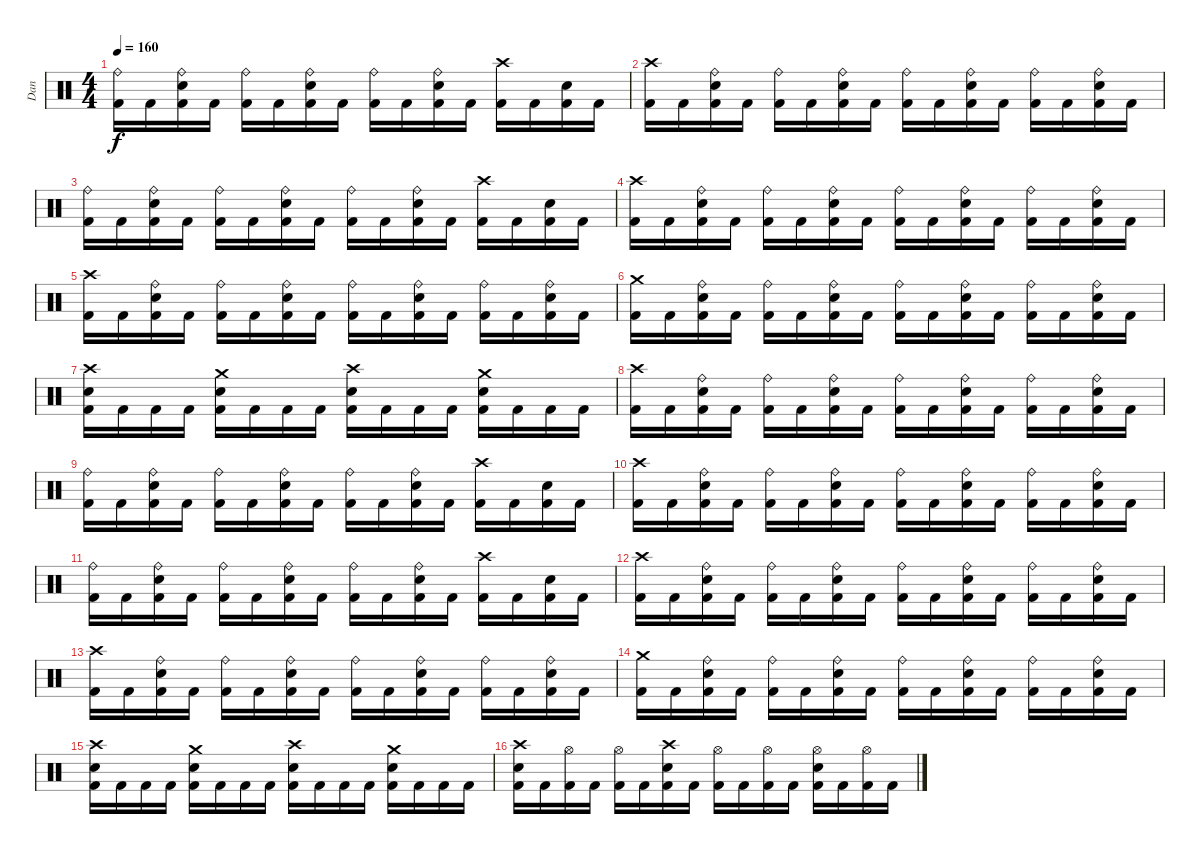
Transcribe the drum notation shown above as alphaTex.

\track ("Dan " "Dan ") {instrument percussion}
\staff {score}
\articulation defaults
\ts (4 4)
\tempo 160
\clef neutral
\ks c
("Kick (hit) 2" "Ride (bell)").16{dy f} "Kick (hit) 2".16 ("Metronome (bell)" "Kick (hit) 2" "Ride (bell)").16 "Kick (hit) 2".16 ("Kick (hit) 2" "Ride (bell)").16 "Kick (hit) 2".16 ("Metronome (bell)" "Kick (hit) 2" "Ride (bell)").16 "Kick (hit) 2".16 ("Kick (hit) 2" "Ride (bell)").16 "Kick (hit) 2".16 ("Metronome (bell)" "Kick (hit) 2" "Ride (bell)").16 "Kick (hit) 2".16 ("Kick (hit) 2" "Crash high (hit)").16 "Kick (hit) 2".16 ("Metronome (bell)" "Kick (hit) 2").16 "Kick (hit) 2".16 |
("Kick (hit) 2" "Crash high (hit)").16 "Kick (hit) 2".16 ("Metronome (bell)" "Kick (hit) 2" "Ride (bell)").16 "Kick (hit) 2".16 ("Kick (hit) 2" "Ride (bell)").16 "Kick (hit) 2".16 ("Metronome (bell)" "Kick (hit) 2" "Ride (bell)").16 "Kick (hit) 2".16 ("Kick (hit) 2" "Ride (bell)").16 "Kick (hit) 2".16 ("Metronome (bell)" "Kick (hit) 2" "Ride (bell)").16 "Kick (hit) 2".16 ("Kick (hit) 2" "Ride (bell)").16 "Kick (hit) 2".16 ("Metronome (bell)" "Kick (hit) 2" "Ride (bell)").16 "Kick (hit) 2".16 |
("Kick (hit) 2" "Ride (bell)").16 "Kick (hit) 2".16 ("Metronome (bell)" "Kick (hit) 2" "Ride (bell)").16 "Kick (hit) 2".16 ("Kick (hit) 2" "Ride (bell)").16 "Kick (hit) 2".16 ("Metronome (bell)" "Kick (hit) 2" "Ride (bell)").16 "Kick (hit) 2".16 ("Kick (hit) 2" "Ride (bell)").16 "Kick (hit) 2".16 ("Metronome (bell)" "Kick (hit) 2" "Ride (bell)").16 "Kick (hit) 2".16 ("Kick (hit) 2" "Crash high (hit)").16 "Kick (hit) 2".16 ("Metronome (bell)" "Kick (hit) 2").16 "Kick (hit) 2".16 |
("Kick (hit) 2" "Crash high (hit)").16 "Kick (hit) 2".16 ("Metronome (bell)" "Kick (hit) 2" "Ride (bell)").16 "Kick (hit) 2".16 ("Kick (hit) 2" "Ride (bell)").16 "Kick (hit) 2".16 ("Metronome (bell)" "Kick (hit) 2" "Ride (bell)").16 "Kick (hit) 2".16 ("Kick (hit) 2" "Ride (bell)").16 "Kick (hit) 2".16 ("Metronome (bell)" "Kick (hit) 2" "Ride (bell)").16 "Kick (hit) 2".16 ("Kick (hit) 2" "Ride (bell)").16 "Kick (hit) 2".16 ("Metronome (bell)" "Kick (hit) 2" "Ride (bell)").16 "Kick (hit) 2".16 |
("Kick (hit) 2" "Crash high (hit)").16 "Kick (hit) 2".16 ("Metronome (bell)" "Kick (hit) 2" "Ride (bell)").16 "Kick (hit) 2".16 ("Kick (hit) 2" "Ride (bell)").16 "Kick (hit) 2".16 ("Metronome (bell)" "Kick (hit) 2" "Ride (bell)").16 "Kick (hit) 2".16 ("Kick (hit) 2" "Ride (bell)").16 "Kick (hit) 2".16 ("Metronome (bell)" "Kick (hit) 2" "Ride (bell)").16 "Kick (hit) 2".16 ("Kick (hit) 2" "Ride (bell)").16 "Kick (hit) 2".16 ("Metronome (bell)" "Kick (hit) 2" "Ride (bell)").16 "Kick (hit) 2".16 |
("Kick (hit) 2" "Crash medium (hit)").16 "Kick (hit) 2".16 ("Metronome (bell)" "Kick (hit) 2" "Ride (bell)").16 "Kick (hit) 2".16 ("Kick (hit) 2" "Ride (bell)").16 "Kick (hit) 2".16 ("Metronome (bell)" "Kick (hit) 2" "Ride (bell)").16 "Kick (hit) 2".16 ("Kick (hit) 2" "Ride (bell)").16 "Kick (hit) 2".16 ("Metronome (bell)" "Kick (hit) 2" "Ride (bell)").16 "Kick (hit) 2".16 ("Kick (hit) 2" "Ride (bell)").16 "Kick (hit) 2".16 ("Metronome (bell)" "Kick (hit) 2" "Ride (bell)").16 "Kick (hit) 2".16 |
("Metronome (bell)" "Kick (hit) 2" "Crash high (hit)").16 "Kick (hit) 2".16 "Kick (hit) 2".16 "Kick (hit) 2".16 ("Metronome (bell)" "Kick (hit) 2" "Crash medium (hit)").16 "Kick (hit) 2".16 "Kick (hit) 2".16 "Kick (hit) 2".16 ("Metronome (bell)" "Kick (hit) 2" "Crash high (hit)").16 "Kick (hit) 2".16 "Kick (hit) 2".16 "Kick (hit) 2".16 ("Metronome (bell)" "Kick (hit) 2" "Crash medium (hit)").16 "Kick (hit) 2".16 "Kick (hit) 2".16 "Kick (hit) 2".16 |
("Kick (hit) 2" "Crash high (hit)").16 "Kick (hit) 2".16 ("Metronome (bell)" "Kick (hit) 2" "Ride (bell)").16 "Kick (hit) 2".16 ("Kick (hit) 2" "Ride (bell)").16 "Kick (hit) 2".16 ("Metronome (bell)" "Kick (hit) 2" "Ride (bell)").16 "Kick (hit) 2".16 ("Kick (hit) 2" "Ride (bell)").16 "Kick (hit) 2".16 ("Metronome (bell)" "Kick (hit) 2" "Ride (bell)").16 "Kick (hit) 2".16 ("Kick (hit) 2" "Ride (bell)").16 "Kick (hit) 2".16 ("Metronome (bell)" "Kick (hit) 2" "Ride (bell)").16 "Kick (hit) 2".16 |
("Kick (hit) 2" "Ride (bell)").16 "Kick (hit) 2".16 ("Metronome (bell)" "Kick (hit) 2" "Ride (bell)").16 "Kick (hit) 2".16 ("Kick (hit) 2" "Ride (bell)").16 "Kick (hit) 2".16 ("Metronome (bell)" "Kick (hit) 2" "Ride (bell)").16 "Kick (hit) 2".16 ("Kick (hit) 2" "Ride (bell)").16 "Kick (hit) 2".16 ("Metronome (bell)" "Kick (hit) 2" "Ride (bell)").16 "Kick (hit) 2".16 ("Kick (hit) 2" "Crash high (hit)").16 "Kick (hit) 2".16 ("Metronome (bell)" "Kick (hit) 2").16 "Kick (hit) 2".16 |
("Kick (hit) 2" "Crash high (hit)").16 "Kick (hit) 2".16 ("Metronome (bell)" "Kick (hit) 2" "Ride (bell)").16 "Kick (hit) 2".16 ("Kick (hit) 2" "Ride (bell)").16 "Kick (hit) 2".16 ("Metronome (bell)" "Kick (hit) 2" "Ride (bell)").16 "Kick (hit) 2".16 ("Kick (hit) 2" "Ride (bell)").16 "Kick (hit) 2".16 ("Metronome (bell)" "Kick (hit) 2" "Ride (bell)").16 "Kick (hit) 2".16 ("Kick (hit) 2" "Ride (bell)").16 "Kick (hit) 2".16 ("Metronome (bell)" "Kick (hit) 2" "Ride (bell)").16 "Kick (hit) 2".16 |
("Kick (hit) 2" "Ride (bell)").16 "Kick (hit) 2".16 ("Metronome (bell)" "Kick (hit) 2" "Ride (bell)").16 "Kick (hit) 2".16 ("Kick (hit) 2" "Ride (bell)").16 "Kick (hit) 2".16 ("Metronome (bell)" "Kick (hit) 2" "Ride (bell)").16 "Kick (hit) 2".16 ("Kick (hit) 2" "Ride (bell)").16 "Kick (hit) 2".16 ("Metronome (bell)" "Kick (hit) 2" "Ride (bell)").16 "Kick (hit) 2".16 ("Kick (hit) 2" "Crash high (hit)").16 "Kick (hit) 2".16 ("Metronome (bell)" "Kick (hit) 2").16 "Kick (hit) 2".16 |
("Kick (hit) 2" "Crash high (hit)").16 "Kick (hit) 2".16 ("Metronome (bell)" "Kick (hit) 2" "Ride (bell)").16 "Kick (hit) 2".16 ("Kick (hit) 2" "Ride (bell)").16 "Kick (hit) 2".16 ("Metronome (bell)" "Kick (hit) 2" "Ride (bell)").16 "Kick (hit) 2".16 ("Kick (hit) 2" "Ride (bell)").16 "Kick (hit) 2".16 ("Metronome (bell)" "Kick (hit) 2" "Ride (bell)").16 "Kick (hit) 2".16 ("Kick (hit) 2" "Ride (bell)").16 "Kick (hit) 2".16 ("Metronome (bell)" "Kick (hit) 2" "Ride (bell)").16 "Kick (hit) 2".16 |
("Kick (hit) 2" "Crash high (hit)").16 "Kick (hit) 2".16 ("Metronome (bell)" "Kick (hit) 2" "Ride (bell)").16 "Kick (hit) 2".16 ("Kick (hit) 2" "Ride (bell)").16 "Kick (hit) 2".16 ("Metronome (bell)" "Kick (hit) 2" "Ride (bell)").16 "Kick (hit) 2".16 ("Kick (hit) 2" "Ride (bell)").16 "Kick (hit) 2".16 ("Metronome (bell)" "Kick (hit) 2" "Ride (bell)").16 "Kick (hit) 2".16 ("Kick (hit) 2" "Ride (bell)").16 "Kick (hit) 2".16 ("Metronome (bell)" "Kick (hit) 2" "Ride (bell)").16 "Kick (hit) 2".16 |
("Kick (hit) 2" "Crash medium (hit)").16 "Kick (hit) 2".16 ("Metronome (bell)" "Kick (hit) 2" "Ride (bell)").16 "Kick (hit) 2".16 ("Kick (hit) 2" "Ride (bell)").16 "Kick (hit) 2".16 ("Metronome (bell)" "Kick (hit) 2" "Ride (bell)").16 "Kick (hit) 2".16 ("Kick (hit) 2" "Ride (bell)").16 "Kick (hit) 2".16 ("Metronome (bell)" "Kick (hit) 2" "Ride (bell)").16 "Kick (hit) 2".16 ("Kick (hit) 2" "Ride (bell)").16 "Kick (hit) 2".16 ("Metronome (bell)" "Kick (hit) 2" "Ride (bell)").16 "Kick (hit) 2".16 |
("Metronome (bell)" "Kick (hit) 2" "Crash high (hit)").16 "Kick (hit) 2".16 "Kick (hit) 2".16 "Kick (hit) 2".16 ("Metronome (bell)" "Kick (hit) 2" "Crash medium (hit)").16 "Kick (hit) 2".16 "Kick (hit) 2".16 "Kick (hit) 2".16 ("Metronome (bell)" "Kick (hit) 2" "Crash high (hit)").16 "Kick (hit) 2".16 "Kick (hit) 2".16 "Kick (hit) 2".16 ("Metronome (bell)" "Kick (hit) 2" "Crash medium (hit)").16 "Kick (hit) 2".16 "Kick (hit) 2".16 "Kick (hit) 2".16 |
("Metronome (bell)" "Kick (hit) 2" "Crash high (hit)").16 "Kick (hit) 2".16 ("Kick (hit) 2" "Hi-Hat (open)").16 "Kick (hit) 2".16 ("Kick (hit) 2" "Hi-Hat (open)").16 "Kick (hit) 2".16 ("Metronome (bell)" "Kick (hit) 2" "Crash high (hit)").16 "Kick (hit) 2".16 ("Kick (hit) 2" "Hi-Hat (open)").16 "Kick (hit) 2".16 ("Kick (hit) 2" "Hi-Hat (open)").16 "Kick (hit) 2".16 ("Metronome (bell)" "Kick (hit) 2" "Hi-Hat (open)").16 "Kick (hit) 2".16 ("Kick (hit) 2" "Hi-Hat (open)").16 "Kick (hit) 2".16
